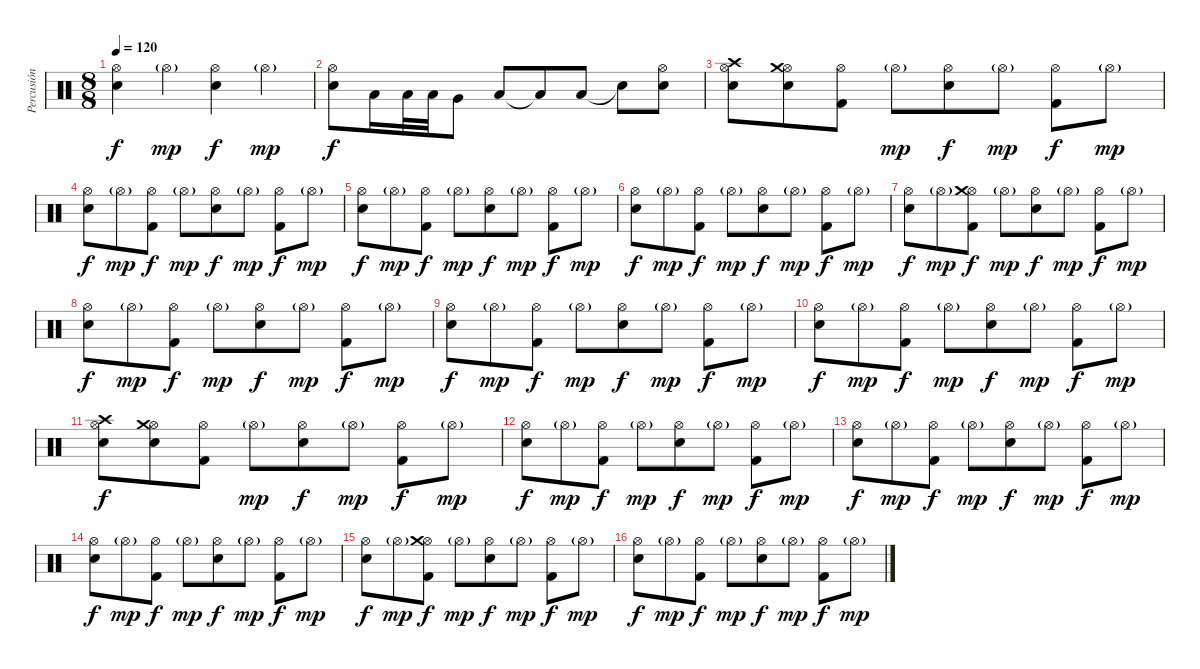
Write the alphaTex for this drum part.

\track ("Percusión" "Percusión") {instrument percussion}
\staff {score}
\articulation defaults
\ts (8 8)
\tempo 120
\clef neutral
\ks c
("Hi-Hat (open)" "Snare (hit) 2").4{dy f} "Hi-Hat (open)"{g}.4{dy mp} ("Hi-Hat (open)" "Snare (hit) 2").4{dy f} "Hi-Hat (open)"{g}.4{dy mp} |
("Hi-Hat (open)" "Snare (hit) 2").8{dy f} "Low Tom (hit)".16 "Low Tom (hit)".32 "Low Tom (hit)".32 "Very Low Tom (hit)".8 "Low Tom (hit)".8 "Low Tom (hit)"{t}.8 "Low Tom (hit)".8 "Snare (hit)"{t}.8 ("Hi-Hat (open)" "Snare (hit) 2").8 |
("Hi-Hat (open)" "Crash high (hit)" "Snare (hit) 2").8 ("Hi-Hat (open)" "Crash medium (hit)" "Snare (hit) 2").8 ("Hi-Hat (open)" "Kick (hit) 2").8 "Hi-Hat (open)"{g}.8{dy mp} ("Hi-Hat (open)" "Snare (hit) 2").8{dy f} "Hi-Hat (open)"{g}.8{dy mp} ("Hi-Hat (open)" "Kick (hit) 2").8{dy f} "Hi-Hat (open)"{g}.8{dy mp} |
("Hi-Hat (open)" "Snare (hit) 2").8{dy f} "Hi-Hat (open)"{g}.8{dy mp} ("Hi-Hat (open)" "Kick (hit) 2").8{dy f} "Hi-Hat (open)"{g}.8{dy mp} ("Hi-Hat (open)" "Snare (hit) 2").8{dy f} "Hi-Hat (open)"{g}.8{dy mp} ("Hi-Hat (open)" "Kick (hit) 2").8{dy f} "Hi-Hat (open)"{g}.8{dy mp} |
("Hi-Hat (open)" "Snare (hit) 2").8{dy f} "Hi-Hat (open)"{g}.8{dy mp} ("Hi-Hat (open)" "Kick (hit) 2").8{dy f} "Hi-Hat (open)"{g}.8{dy mp} ("Hi-Hat (open)" "Snare (hit) 2").8{dy f} "Hi-Hat (open)"{g}.8{dy mp} ("Hi-Hat (open)" "Kick (hit) 2").8{dy f} "Hi-Hat (open)"{g}.8{dy mp} |
("Hi-Hat (open)" "Snare (hit) 2").8{dy f} "Hi-Hat (open)"{g}.8{dy mp} ("Hi-Hat (open)" "Kick (hit) 2").8{dy f} "Hi-Hat (open)"{g}.8{dy mp} ("Hi-Hat (open)" "Snare (hit) 2").8{dy f} "Hi-Hat (open)"{g}.8{dy mp} ("Hi-Hat (open)" "Kick (hit) 2").8{dy f} "Hi-Hat (open)"{g}.8{dy mp} |
("Hi-Hat (open)" "Snare (hit) 2").8{dy f} "Hi-Hat (open)"{g}.8{dy mp} ("Hi-Hat (open)" "Crash medium (hit)" "Kick (hit) 2").8{dy f} "Hi-Hat (open)"{g}.8{dy mp} ("Hi-Hat (open)" "Snare (hit) 2").8{dy f} "Hi-Hat (open)"{g}.8{dy mp} ("Hi-Hat (open)" "Kick (hit) 2").8{dy f} "Hi-Hat (open)"{g}.8{dy mp} |
("Hi-Hat (open)" "Snare (hit) 2").8{dy f} "Hi-Hat (open)"{g}.8{dy mp} ("Hi-Hat (open)" "Kick (hit) 2").8{dy f} "Hi-Hat (open)"{g}.8{dy mp} ("Hi-Hat (open)" "Snare (hit) 2").8{dy f} "Hi-Hat (open)"{g}.8{dy mp} ("Hi-Hat (open)" "Kick (hit) 2").8{dy f} "Hi-Hat (open)"{g}.8{dy mp} |
("Hi-Hat (open)" "Snare (hit) 2").8{dy f} "Hi-Hat (open)"{g}.8{dy mp} ("Hi-Hat (open)" "Kick (hit) 2").8{dy f} "Hi-Hat (open)"{g}.8{dy mp} ("Hi-Hat (open)" "Snare (hit) 2").8{dy f} "Hi-Hat (open)"{g}.8{dy mp} ("Hi-Hat (open)" "Kick (hit) 2").8{dy f} "Hi-Hat (open)"{g}.8{dy mp} |
("Hi-Hat (open)" "Snare (hit) 2").8{dy f} "Hi-Hat (open)"{g}.8{dy mp} ("Hi-Hat (open)" "Kick (hit) 2").8{dy f} "Hi-Hat (open)"{g}.8{dy mp} ("Hi-Hat (open)" "Snare (hit) 2").8{dy f} "Hi-Hat (open)"{g}.8{dy mp} ("Hi-Hat (open)" "Kick (hit) 2").8{dy f} "Hi-Hat (open)"{g}.8{dy mp} |
("Hi-Hat (open)" "Crash high (hit)" "Snare (hit) 2").8{dy f} ("Hi-Hat (open)" "Crash medium (hit)" "Snare (hit) 2").8 ("Hi-Hat (open)" "Kick (hit) 2").8 "Hi-Hat (open)"{g}.8{dy mp} ("Hi-Hat (open)" "Snare (hit) 2").8{dy f} "Hi-Hat (open)"{g}.8{dy mp} ("Hi-Hat (open)" "Kick (hit) 2").8{dy f} "Hi-Hat (open)"{g}.8{dy mp} |
("Hi-Hat (open)" "Snare (hit) 2").8{dy f} "Hi-Hat (open)"{g}.8{dy mp} ("Hi-Hat (open)" "Kick (hit) 2").8{dy f} "Hi-Hat (open)"{g}.8{dy mp} ("Hi-Hat (open)" "Snare (hit) 2").8{dy f} "Hi-Hat (open)"{g}.8{dy mp} ("Hi-Hat (open)" "Kick (hit) 2").8{dy f} "Hi-Hat (open)"{g}.8{dy mp} |
("Hi-Hat (open)" "Snare (hit) 2").8{dy f} "Hi-Hat (open)"{g}.8{dy mp} ("Hi-Hat (open)" "Kick (hit) 2").8{dy f} "Hi-Hat (open)"{g}.8{dy mp} ("Hi-Hat (open)" "Snare (hit) 2").8{dy f} "Hi-Hat (open)"{g}.8{dy mp} ("Hi-Hat (open)" "Kick (hit) 2").8{dy f} "Hi-Hat (open)"{g}.8{dy mp} |
("Hi-Hat (open)" "Snare (hit) 2").8{dy f} "Hi-Hat (open)"{g}.8{dy mp} ("Hi-Hat (open)" "Kick (hit) 2").8{dy f} "Hi-Hat (open)"{g}.8{dy mp} ("Hi-Hat (open)" "Snare (hit) 2").8{dy f} "Hi-Hat (open)"{g}.8{dy mp} ("Hi-Hat (open)" "Kick (hit) 2").8{dy f} "Hi-Hat (open)"{g}.8{dy mp} |
("Hi-Hat (open)" "Snare (hit) 2").8{dy f} "Hi-Hat (open)"{g}.8{dy mp} ("Hi-Hat (open)" "Crash medium (hit)" "Kick (hit) 2").8{dy f} "Hi-Hat (open)"{g}.8{dy mp} ("Hi-Hat (open)" "Snare (hit) 2").8{dy f} "Hi-Hat (open)"{g}.8{dy mp} ("Hi-Hat (open)" "Kick (hit) 2").8{dy f} "Hi-Hat (open)"{g}.8{dy mp} |
("Hi-Hat (open)" "Snare (hit) 2").8{dy f} "Hi-Hat (open)"{g}.8{dy mp} ("Hi-Hat (open)" "Kick (hit) 2").8{dy f} "Hi-Hat (open)"{g}.8{dy mp} ("Hi-Hat (open)" "Snare (hit) 2").8{dy f} "Hi-Hat (open)"{g}.8{dy mp} ("Hi-Hat (open)" "Kick (hit) 2").8{dy f} "Hi-Hat (open)"{g}.8{dy mp}
